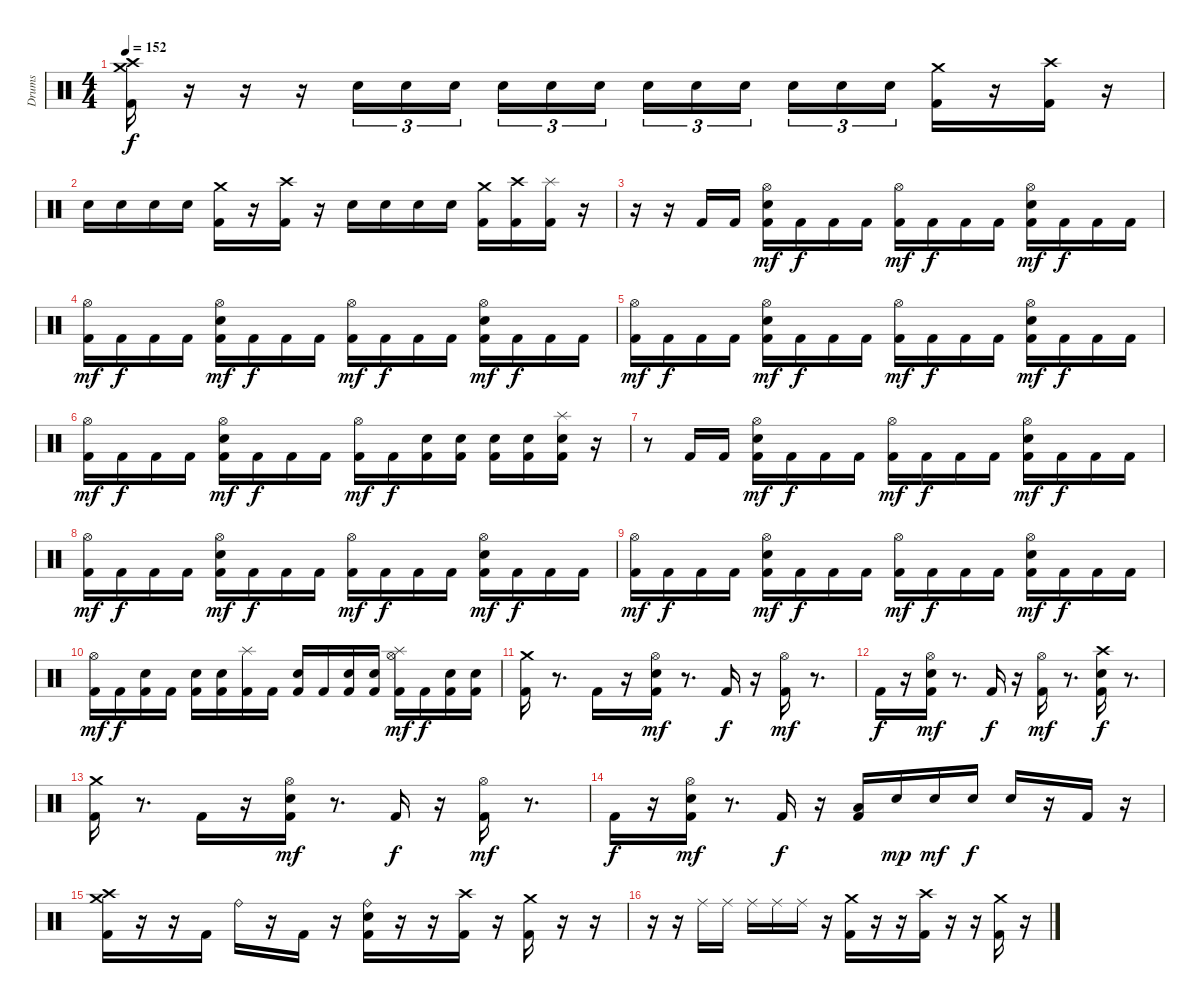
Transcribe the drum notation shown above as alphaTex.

\track ("Drums" "Drums") {instrument percussion}
\staff {score}
\articulation defaults
\ts (4 4)
\tempo 152
\clef neutral
\ks c
("Crash medium (hit)" "Crash high (hit)" "Kick (hit) 2").16{dy f} r.16 r.16 r.16 "Snare (hit) 2".16{tu (3 2)} "Snare (hit) 2".16{tu (3 2)} "Snare (hit) 2".16{tu (3 2)} "Snare (hit) 2".16{tu (3 2)} "Snare (hit) 2".16{tu (3 2)} "Snare (hit) 2".16{tu (3 2)} "Snare (hit) 2".16{tu (3 2)} "Snare (hit) 2".16{tu (3 2)} "Snare (hit) 2".16{tu (3 2)} "Snare (hit) 2".16{tu (3 2)} "Snare (hit) 2".16{tu (3 2)} "Snare (hit) 2".16{tu (3 2)} ("Crash medium (hit)" "Kick (hit) 2").16 r.16 ("Crash high (hit)" "Kick (hit) 2").16 r.16 |
"Snare (hit) 2".16 "Snare (hit) 2".16 "Snare (hit) 2".16 "Snare (hit) 2".16 ("Crash medium (hit)" "Kick (hit) 2").16 r.16 ("Crash high (hit)" "Kick (hit) 2").16 r.16 "Snare (hit) 2".16 "Snare (hit) 2".16 "Snare (hit) 2".16 "Snare (hit) 2".16 ("Crash medium (hit)" "Kick (hit) 2").16 ("Crash high (hit)" "Kick (hit) 2").16 ("Splash (hit)" "Kick (hit) 2").16 r.16 |
r.16 r.16 "Kick (hit) 2".16 "Kick (hit) 2".16 ("Hi-Hat (open)" "Snare (hit) 2" "Kick (hit) 2").16{dy mf} "Kick (hit) 2".16{dy f} "Kick (hit) 2".16 "Kick (hit) 2".16 ("Hi-Hat (open)" "Kick (hit) 2").16{dy mf} "Kick (hit) 2".16{dy f} "Kick (hit) 2".16 "Kick (hit) 2".16 ("Hi-Hat (open)" "Snare (hit) 2" "Kick (hit) 2").16{dy mf} "Kick (hit) 2".16{dy f} "Kick (hit) 2".16 "Kick (hit) 2".16 |
("Hi-Hat (open)" "Kick (hit) 2").16{dy mf} "Kick (hit) 2".16{dy f} "Kick (hit) 2".16 "Kick (hit) 2".16 ("Hi-Hat (open)" "Snare (hit) 2" "Kick (hit) 2").16{dy mf} "Kick (hit) 2".16{dy f} "Kick (hit) 2".16 "Kick (hit) 2".16 ("Hi-Hat (open)" "Kick (hit) 2").16{dy mf} "Kick (hit) 2".16{dy f} "Kick (hit) 2".16 "Kick (hit) 2".16 ("Hi-Hat (open)" "Snare (hit) 2" "Kick (hit) 2").16{dy mf} "Kick (hit) 2".16{dy f} "Kick (hit) 2".16 "Kick (hit) 2".16 |
("Hi-Hat (open)" "Kick (hit) 2").16{dy mf} "Kick (hit) 2".16{dy f} "Kick (hit) 2".16 "Kick (hit) 2".16 ("Hi-Hat (open)" "Snare (hit) 2" "Kick (hit) 2").16{dy mf} "Kick (hit) 2".16{dy f} "Kick (hit) 2".16 "Kick (hit) 2".16 ("Hi-Hat (open)" "Kick (hit) 2").16{dy mf} "Kick (hit) 2".16{dy f} "Kick (hit) 2".16 "Kick (hit) 2".16 ("Hi-Hat (open)" "Snare (hit) 2" "Kick (hit) 2").16{dy mf} "Kick (hit) 2".16{dy f} "Kick (hit) 2".16 "Kick (hit) 2".16 |
("Hi-Hat (open)" "Kick (hit) 2").16{dy mf} "Kick (hit) 2".16{dy f} "Kick (hit) 2".16 "Kick (hit) 2".16 ("Hi-Hat (open)" "Snare (hit) 2" "Kick (hit) 2").16{dy mf} "Kick (hit) 2".16{dy f} "Kick (hit) 2".16 "Kick (hit) 2".16 ("Hi-Hat (open)" "Kick (hit) 2").16{dy mf} "Kick (hit) 2".16{dy f} ("Snare (hit) 2" "Kick (hit) 2").16 ("Snare (hit) 2" "Kick (hit) 2").16 ("Snare (hit) 2" "Kick (hit) 2").16 ("Snare (hit) 2" "Kick (hit) 2").16 ("Splash (hit)" "Snare (hit) 2" "Kick (hit) 2").16 r.16 |
r.8 "Kick (hit) 2".16 "Kick (hit) 2".16 ("Hi-Hat (open)" "Snare (hit) 2" "Kick (hit) 2").16{dy mf} "Kick (hit) 2".16{dy f} "Kick (hit) 2".16 "Kick (hit) 2".16 ("Hi-Hat (open)" "Kick (hit) 2").16{dy mf} "Kick (hit) 2".16{dy f} "Kick (hit) 2".16 "Kick (hit) 2".16 ("Hi-Hat (open)" "Snare (hit) 2" "Kick (hit) 2").16{dy mf} "Kick (hit) 2".16{dy f} "Kick (hit) 2".16 "Kick (hit) 2".16 |
("Hi-Hat (open)" "Kick (hit) 2").16{dy mf} "Kick (hit) 2".16{dy f} "Kick (hit) 2".16 "Kick (hit) 2".16 ("Hi-Hat (open)" "Snare (hit) 2" "Kick (hit) 2").16{dy mf} "Kick (hit) 2".16{dy f} "Kick (hit) 2".16 "Kick (hit) 2".16 ("Hi-Hat (open)" "Kick (hit) 2").16{dy mf} "Kick (hit) 2".16{dy f} "Kick (hit) 2".16 "Kick (hit) 2".16 ("Hi-Hat (open)" "Snare (hit) 2" "Kick (hit) 2").16{dy mf} "Kick (hit) 2".16{dy f} "Kick (hit) 2".16 "Kick (hit) 2".16 |
("Hi-Hat (open)" "Kick (hit) 2").16{dy mf} "Kick (hit) 2".16{dy f} "Kick (hit) 2".16 "Kick (hit) 2".16 ("Hi-Hat (open)" "Snare (hit) 2" "Kick (hit) 2").16{dy mf} "Kick (hit) 2".16{dy f} "Kick (hit) 2".16 "Kick (hit) 2".16 ("Hi-Hat (open)" "Kick (hit) 2").16{dy mf} "Kick (hit) 2".16{dy f} "Kick (hit) 2".16 "Kick (hit) 2".16 ("Hi-Hat (open)" "Snare (hit) 2" "Kick (hit) 2").16{dy mf} "Kick (hit) 2".16{dy f} "Kick (hit) 2".16 "Kick (hit) 2".16 |
("Hi-Hat (open)" "Kick (hit) 2").16{dy mf} "Kick (hit) 2".16{dy f} ("Snare (hit) 2" "Kick (hit) 2").16 "Kick (hit) 2".16 ("Snare (hit) 2" "Kick (hit) 2").16 ("Snare (hit) 2" "Kick (hit) 2").16 ("Splash (hit)" "Kick (hit) 2").16 "Kick (hit) 2".16 ("Snare (hit) 2" "Kick (hit) 2").16 "Kick (hit) 2".16 ("Snare (hit) 2" "Kick (hit) 2").16 ("Snare (hit) 2" "Kick (hit) 2").16 ("Splash (hit)" "Hi-Hat (open)" "Kick (hit) 2").16{dy mf} "Kick (hit) 2".16{dy f} ("Snare (hit) 2" "Kick (hit) 2").16 ("Snare (hit) 2" "Kick (hit) 2").16 |
("Crash medium (hit)" "Kick (hit) 2").16 r.8{d} "Kick (hit) 2".16 r.16 ("Hi-Hat (open)" "Snare (hit) 2" "Kick (hit) 2").16{dy mf} r.8{d} "Kick (hit) 2".16{dy f} r.16 ("Hi-Hat (open)" "Kick (hit) 2").16{dy mf} r.8{d} |
"Kick (hit) 2".16{dy f} r.16 ("Hi-Hat (open)" "Snare (hit) 2" "Kick (hit) 2").16{dy mf} r.8{d} "Kick (hit) 2".16{dy f} r.16 ("Hi-Hat (open)" "Kick (hit) 2").16{dy mf} r.8{d} ("Crash high (hit)" "Snare (hit) 2" "Kick (hit) 2").16{dy f} r.8{d} |
("Crash medium (hit)" "Kick (hit) 2").16 r.8{d} "Kick (hit) 2".16 r.16 ("Hi-Hat (open)" "Snare (hit) 2" "Kick (hit) 2").16{dy mf} r.8{d} "Kick (hit) 2".16{dy f} r.16 ("Hi-Hat (open)" "Kick (hit) 2").16{dy mf} r.8{d} |
"Kick (hit) 2".16{dy f} r.16 ("Hi-Hat (open)" "Snare (hit) 2" "Kick (hit) 2").16{dy mf} r.8{d} "Kick (hit) 2".16{dy f} r.16 ("Low Tom (hit)" "Kick (hit) 2").16 "Snare (hit) 2".16{dy mp} "Snare (hit) 2".16{dy mf} "Snare (hit) 2".16{dy f} "Snare (hit) 2".16 r.16 "Kick (hit) 2".16 r.16 |
("Crash medium (hit)" "Crash high (hit)" "Kick (hit) 2").16 r.16 r.16 "Kick (hit) 2".16 "Ride (bell)".16 r.16 "Kick (hit) 2".16 r.16 ("Ride (bell)" "Snare (hit) 2" "Kick (hit) 2").16 r.16 r.16 ("Crash high (hit)" "Kick (hit) 2").16 r.16 ("Crash medium (hit)" "Kick (hit) 2").16 r.16 r.16 |
r.16 r.16 "Ride (middle)".16 "Ride (middle)".16 "Ride (middle)".16 "Ride (middle)".16 "Ride (middle)".16 r.16 ("Crash medium (hit)" "Kick (hit) 2").16 r.16 r.16 ("Crash high (hit)" "Kick (hit) 2").16 r.16 r.16 ("Crash medium (hit)" "Kick (hit) 2").16 r.16
